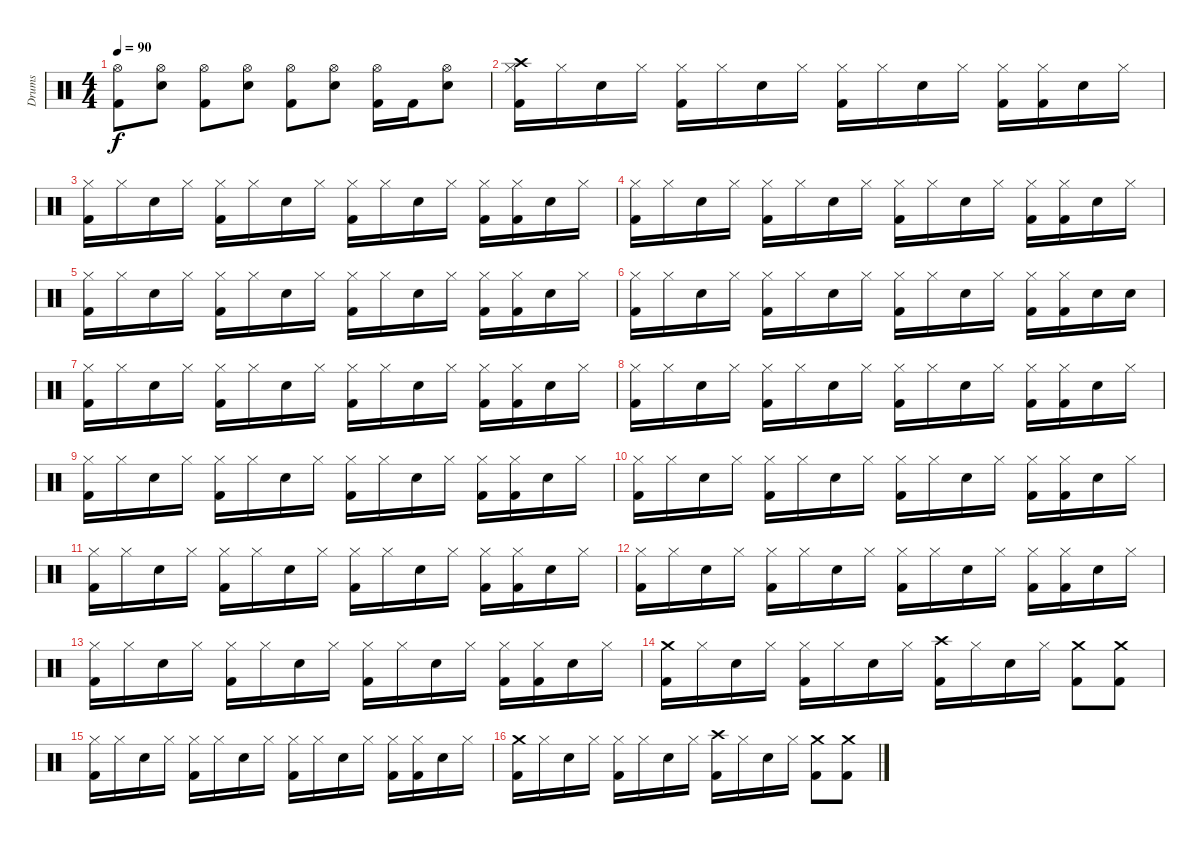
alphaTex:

\track ("Drums" "Drums") {instrument percussion}
\staff {score}
\articulation defaults
\ts (4 4)
\tempo 90
\clef neutral
\ks c
("Hi-Hat (open)" "Kick (hit) 2").8{dy f} ("Hi-Hat (open)" "Electric Snare (hit)").8 ("Hi-Hat (open)" "Kick (hit) 2").8 ("Hi-Hat (open)" "Electric Snare (hit)").8 ("Hi-Hat (open)" "Kick (hit) 2").8 ("Hi-Hat (open)" "Electric Snare (hit)").8 ("Hi-Hat (open)" "Kick (hit) 2").16 "Kick (hit) 2".16 ("Hi-Hat (open)" "Electric Snare (hit)").8 |
("Crash high (hit)" "Hi-Hat (closed)" "Kick (hit) 2").16 "Hi-Hat (closed)".16 "Electric Snare (hit)".16 "Hi-Hat (closed)".16 ("Hi-Hat (closed)" "Kick (hit) 2").16 "Hi-Hat (closed)".16 "Electric Snare (hit)".16 "Hi-Hat (closed)".16 ("Hi-Hat (closed)" "Kick (hit) 2").16 "Hi-Hat (closed)".16 "Electric Snare (hit)".16 "Hi-Hat (closed)".16 ("Hi-Hat (closed)" "Kick (hit) 2").16 ("Hi-Hat (closed)" "Kick (hit) 2").16 "Electric Snare (hit)".16 "Hi-Hat (closed)".16 |
("Hi-Hat (closed)" "Kick (hit) 2").16 "Hi-Hat (closed)".16 "Electric Snare (hit)".16 "Hi-Hat (closed)".16 ("Hi-Hat (closed)" "Kick (hit) 2").16 "Hi-Hat (closed)".16 "Electric Snare (hit)".16 "Hi-Hat (closed)".16 ("Hi-Hat (closed)" "Kick (hit) 2").16 "Hi-Hat (closed)".16 "Electric Snare (hit)".16 "Hi-Hat (closed)".16 ("Hi-Hat (closed)" "Kick (hit) 2").16 ("Hi-Hat (closed)" "Kick (hit) 2").16 "Electric Snare (hit)".16 "Hi-Hat (closed)".16 |
("Hi-Hat (closed)" "Kick (hit) 2").16 "Hi-Hat (closed)".16 "Electric Snare (hit)".16 "Hi-Hat (closed)".16 ("Hi-Hat (closed)" "Kick (hit) 2").16 "Hi-Hat (closed)".16 "Electric Snare (hit)".16 "Hi-Hat (closed)".16 ("Hi-Hat (closed)" "Kick (hit) 2").16 "Hi-Hat (closed)".16 "Electric Snare (hit)".16 "Hi-Hat (closed)".16 ("Hi-Hat (closed)" "Kick (hit) 2").16 ("Hi-Hat (closed)" "Kick (hit) 2").16 "Electric Snare (hit)".16 "Hi-Hat (closed)".16 |
("Hi-Hat (closed)" "Kick (hit) 2").16 "Hi-Hat (closed)".16 "Electric Snare (hit)".16 "Hi-Hat (closed)".16 ("Hi-Hat (closed)" "Kick (hit) 2").16 "Hi-Hat (closed)".16 "Electric Snare (hit)".16 "Hi-Hat (closed)".16 ("Hi-Hat (closed)" "Kick (hit) 2").16 "Hi-Hat (closed)".16 "Electric Snare (hit)".16 "Hi-Hat (closed)".16 ("Hi-Hat (closed)" "Kick (hit) 2").16 ("Hi-Hat (closed)" "Kick (hit) 2").16 "Electric Snare (hit)".16 "Hi-Hat (closed)".16 |
("Hi-Hat (closed)" "Kick (hit) 2").16 "Hi-Hat (closed)".16 "Electric Snare (hit)".16 "Hi-Hat (closed)".16 ("Hi-Hat (closed)" "Kick (hit) 2").16 "Hi-Hat (closed)".16 "Electric Snare (hit)".16 "Hi-Hat (closed)".16 ("Hi-Hat (closed)" "Kick (hit) 2").16 "Hi-Hat (closed)".16 "Electric Snare (hit)".16 "Hi-Hat (closed)".16 ("Hi-Hat (closed)" "Kick (hit) 2").16 ("Hi-Hat (closed)" "Kick (hit) 2").16 "Electric Snare (hit)".16 "Electric Snare (hit)".16 |
("Hi-Hat (closed)" "Kick (hit) 2").16 "Hi-Hat (closed)".16 "Electric Snare (hit)".16 "Hi-Hat (closed)".16 ("Hi-Hat (closed)" "Kick (hit) 2").16 "Hi-Hat (closed)".16 "Electric Snare (hit)".16 "Hi-Hat (closed)".16 ("Hi-Hat (closed)" "Kick (hit) 2").16 "Hi-Hat (closed)".16 "Electric Snare (hit)".16 "Hi-Hat (closed)".16 ("Hi-Hat (closed)" "Kick (hit) 2").16 ("Hi-Hat (closed)" "Kick (hit) 2").16 "Electric Snare (hit)".16 "Hi-Hat (closed)".16 |
("Hi-Hat (closed)" "Kick (hit) 2").16 "Hi-Hat (closed)".16 "Electric Snare (hit)".16 "Hi-Hat (closed)".16 ("Hi-Hat (closed)" "Kick (hit) 2").16 "Hi-Hat (closed)".16 "Electric Snare (hit)".16 "Hi-Hat (closed)".16 ("Hi-Hat (closed)" "Kick (hit) 2").16 "Hi-Hat (closed)".16 "Electric Snare (hit)".16 "Hi-Hat (closed)".16 ("Hi-Hat (closed)" "Kick (hit) 2").16 ("Hi-Hat (closed)" "Kick (hit) 2").16 "Electric Snare (hit)".16 "Hi-Hat (closed)".16 |
("Hi-Hat (closed)" "Kick (hit) 2").16 "Hi-Hat (closed)".16 "Electric Snare (hit)".16 "Hi-Hat (closed)".16 ("Hi-Hat (closed)" "Kick (hit) 2").16 "Hi-Hat (closed)".16 "Electric Snare (hit)".16 "Hi-Hat (closed)".16 ("Hi-Hat (closed)" "Kick (hit) 2").16 "Hi-Hat (closed)".16 "Electric Snare (hit)".16 "Hi-Hat (closed)".16 ("Hi-Hat (closed)" "Kick (hit) 2").16 ("Hi-Hat (closed)" "Kick (hit) 2").16 "Electric Snare (hit)".16 "Hi-Hat (closed)".16 |
("Hi-Hat (closed)" "Kick (hit) 2").16 "Hi-Hat (closed)".16 "Electric Snare (hit)".16 "Hi-Hat (closed)".16 ("Hi-Hat (closed)" "Kick (hit) 2").16 "Hi-Hat (closed)".16 "Electric Snare (hit)".16 "Hi-Hat (closed)".16 ("Hi-Hat (closed)" "Kick (hit) 2").16 "Hi-Hat (closed)".16 "Electric Snare (hit)".16 "Hi-Hat (closed)".16 ("Hi-Hat (closed)" "Kick (hit) 2").16 ("Hi-Hat (closed)" "Kick (hit) 2").16 "Electric Snare (hit)".16 "Hi-Hat (closed)".16 |
("Hi-Hat (closed)" "Kick (hit) 2").16 "Hi-Hat (closed)".16 "Electric Snare (hit)".16 "Hi-Hat (closed)".16 ("Hi-Hat (closed)" "Kick (hit) 2").16 "Hi-Hat (closed)".16 "Electric Snare (hit)".16 "Hi-Hat (closed)".16 ("Hi-Hat (closed)" "Kick (hit) 2").16 "Hi-Hat (closed)".16 "Electric Snare (hit)".16 "Hi-Hat (closed)".16 ("Hi-Hat (closed)" "Kick (hit) 2").16 ("Hi-Hat (closed)" "Kick (hit) 2").16 "Electric Snare (hit)".16 "Hi-Hat (closed)".16 |
("Hi-Hat (closed)" "Kick (hit) 2").16 "Hi-Hat (closed)".16 "Electric Snare (hit)".16 "Hi-Hat (closed)".16 ("Hi-Hat (closed)" "Kick (hit) 2").16 "Hi-Hat (closed)".16 "Electric Snare (hit)".16 "Hi-Hat (closed)".16 ("Hi-Hat (closed)" "Kick (hit) 2").16 "Hi-Hat (closed)".16 "Electric Snare (hit)".16 "Hi-Hat (closed)".16 ("Hi-Hat (closed)" "Kick (hit) 2").16 ("Hi-Hat (closed)" "Kick (hit) 2").16 "Electric Snare (hit)".16 "Hi-Hat (closed)".16 |
("Hi-Hat (closed)" "Kick (hit) 2").16 "Hi-Hat (closed)".16 "Electric Snare (hit)".16 "Hi-Hat (closed)".16 ("Hi-Hat (closed)" "Kick (hit) 2").16 "Hi-Hat (closed)".16 "Electric Snare (hit)".16 "Hi-Hat (closed)".16 ("Hi-Hat (closed)" "Kick (hit) 2").16 "Hi-Hat (closed)".16 "Electric Snare (hit)".16 "Hi-Hat (closed)".16 ("Hi-Hat (closed)" "Kick (hit) 2").16 ("Hi-Hat (closed)" "Kick (hit) 2").16 "Electric Snare (hit)".16 "Hi-Hat (closed)".16 |
("Crash medium (hit)" "Kick (hit) 2").16 "Hi-Hat (closed)".16 "Electric Snare (hit)".16 "Hi-Hat (closed)".16 ("Hi-Hat (closed)" "Kick (hit) 2").16 "Hi-Hat (closed)".16 "Electric Snare (hit)".16 "Hi-Hat (closed)".16 ("Crash high (hit)" "Kick (hit) 2").16 "Hi-Hat (closed)".16 "Electric Snare (hit)".16 "Hi-Hat (closed)".16 ("Crash medium (hit)" "Kick (hit) 2").8 ("Crash medium (hit)" "Kick (hit) 2").8 |
("Hi-Hat (closed)" "Kick (hit) 2").16 "Hi-Hat (closed)".16 "Electric Snare (hit)".16 "Hi-Hat (closed)".16 ("Hi-Hat (closed)" "Kick (hit) 2").16 "Hi-Hat (closed)".16 "Electric Snare (hit)".16 "Hi-Hat (closed)".16 ("Hi-Hat (closed)" "Kick (hit) 2").16 "Hi-Hat (closed)".16 "Electric Snare (hit)".16 "Hi-Hat (closed)".16 ("Hi-Hat (closed)" "Kick (hit) 2").16 ("Hi-Hat (closed)" "Kick (hit) 2").16 "Electric Snare (hit)".16 "Hi-Hat (closed)".16 |
("Crash medium (hit)" "Kick (hit) 2").16 "Hi-Hat (closed)".16 "Electric Snare (hit)".16 "Hi-Hat (closed)".16 ("Hi-Hat (closed)" "Kick (hit) 2").16 "Hi-Hat (closed)".16 "Electric Snare (hit)".16 "Hi-Hat (closed)".16 ("Crash high (hit)" "Kick (hit) 2").16 "Hi-Hat (closed)".16 "Electric Snare (hit)".16 "Hi-Hat (closed)".16 ("Crash medium (hit)" "Kick (hit) 2").8 ("Crash medium (hit)" "Kick (hit) 2").8
